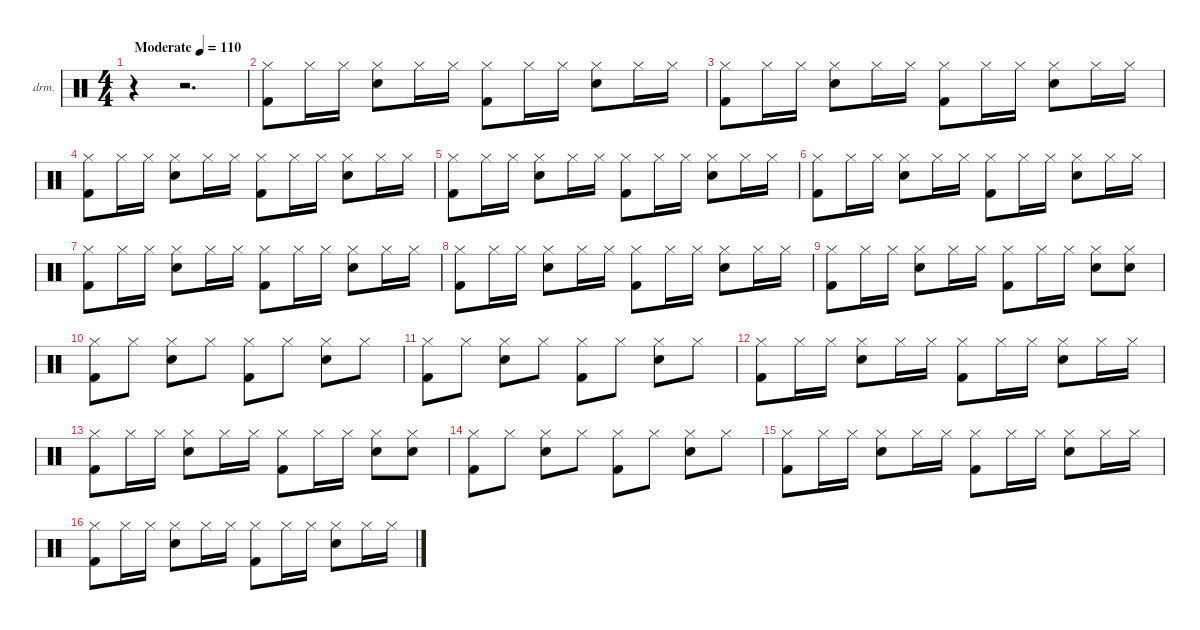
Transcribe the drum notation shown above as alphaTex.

\hideDynamics
\bracketExtendMode nobrackets
\firstSystemTrackNameOrientation horizontal
\otherSystemsTrackNameOrientation horizontal
\track ("韩子钰" "drm.") {instrument percussion}
\staff {score}
\articulation defaults
\ts (4 4)
\beaming (8 2 2 2 2)
\tempo (110 "Moderate")
\clef neutral
\ks c
r.4{dy f} r.2{d} |
("Hi-Hat (closed)" "Kick (hit) 2").8 "Hi-Hat (closed)".16 "Hi-Hat (closed)".16 ("Hi-Hat (closed)" "Snare (hit) 2").8 "Hi-Hat (closed)".16 "Hi-Hat (closed)".16 ("Hi-Hat (closed)" "Kick (hit) 2").8 "Hi-Hat (closed)".16 "Hi-Hat (closed)".16 ("Hi-Hat (closed)" "Snare (hit) 2").8 "Hi-Hat (closed)".16 "Hi-Hat (closed)".16 |
("Hi-Hat (closed)" "Kick (hit) 2").8 "Hi-Hat (closed)".16 "Hi-Hat (closed)".16 ("Hi-Hat (closed)" "Snare (hit) 2").8 "Hi-Hat (closed)".16 "Hi-Hat (closed)".16 ("Hi-Hat (closed)" "Kick (hit) 2").8 "Hi-Hat (closed)".16 "Hi-Hat (closed)".16 ("Hi-Hat (closed)" "Snare (hit) 2").8 "Hi-Hat (closed)".16 "Hi-Hat (closed)".16 |
("Hi-Hat (closed)" "Kick (hit) 2").8 "Hi-Hat (closed)".16 "Hi-Hat (closed)".16 ("Hi-Hat (closed)" "Snare (hit) 2").8 "Hi-Hat (closed)".16 "Hi-Hat (closed)".16 ("Hi-Hat (closed)" "Kick (hit) 2").8 "Hi-Hat (closed)".16 "Hi-Hat (closed)".16 ("Hi-Hat (closed)" "Snare (hit) 2").8 "Hi-Hat (closed)".16 "Hi-Hat (closed)".16 |
("Hi-Hat (closed)" "Kick (hit) 2").8 "Hi-Hat (closed)".16 "Hi-Hat (closed)".16 ("Hi-Hat (closed)" "Snare (hit) 2").8 "Hi-Hat (closed)".16 "Hi-Hat (closed)".16 ("Hi-Hat (closed)" "Kick (hit) 2").8 "Hi-Hat (closed)".16 "Hi-Hat (closed)".16 ("Hi-Hat (closed)" "Snare (hit) 2").8 "Hi-Hat (closed)".16 "Hi-Hat (closed)".16 |
("Hi-Hat (closed)" "Kick (hit) 2").8 "Hi-Hat (closed)".16 "Hi-Hat (closed)".16 ("Hi-Hat (closed)" "Snare (hit) 2").8 "Hi-Hat (closed)".16 "Hi-Hat (closed)".16 ("Hi-Hat (closed)" "Kick (hit) 2").8 "Hi-Hat (closed)".16 "Hi-Hat (closed)".16 ("Hi-Hat (closed)" "Snare (hit) 2").8 "Hi-Hat (closed)".16 "Hi-Hat (closed)".16 |
("Hi-Hat (closed)" "Kick (hit) 2").8 "Hi-Hat (closed)".16 "Hi-Hat (closed)".16 ("Hi-Hat (closed)" "Snare (hit) 2").8 "Hi-Hat (closed)".16 "Hi-Hat (closed)".16 ("Hi-Hat (closed)" "Kick (hit) 2").8 "Hi-Hat (closed)".16 "Hi-Hat (closed)".16 ("Hi-Hat (closed)" "Snare (hit) 2").8 "Hi-Hat (closed)".16 "Hi-Hat (closed)".16 |
("Hi-Hat (closed)" "Kick (hit) 2").8 "Hi-Hat (closed)".16 "Hi-Hat (closed)".16 ("Hi-Hat (closed)" "Snare (hit) 2").8 "Hi-Hat (closed)".16 "Hi-Hat (closed)".16 ("Hi-Hat (closed)" "Kick (hit) 2").8 "Hi-Hat (closed)".16 "Hi-Hat (closed)".16 ("Hi-Hat (closed)" "Snare (hit) 2").8 "Hi-Hat (closed)".16 "Hi-Hat (closed)".16 |
("Hi-Hat (closed)" "Kick (hit) 2").8 "Hi-Hat (closed)".16 "Hi-Hat (closed)".16 ("Hi-Hat (closed)" "Snare (hit) 2").8 "Hi-Hat (closed)".16 "Hi-Hat (closed)".16 ("Hi-Hat (closed)" "Kick (hit) 2").8 "Hi-Hat (closed)".16 "Hi-Hat (closed)".16 ("Hi-Hat (closed)" "Snare (hit) 2").8 ("Hi-Hat (closed)" "Snare (hit) 2").8 |
("Hi-Hat (closed)" "Kick (hit) 2").8 "Hi-Hat (closed)".8 ("Hi-Hat (closed)" "Snare (hit) 2").8 "Hi-Hat (closed)".8 ("Hi-Hat (closed)" "Kick (hit) 2").8 "Hi-Hat (closed)".8 ("Hi-Hat (closed)" "Snare (hit) 2").8 "Hi-Hat (closed)".8 |
("Hi-Hat (closed)" "Kick (hit) 2").8 "Hi-Hat (closed)".8 ("Hi-Hat (closed)" "Snare (hit) 2").8 "Hi-Hat (closed)".8 ("Hi-Hat (closed)" "Kick (hit) 2").8 "Hi-Hat (closed)".8 ("Hi-Hat (closed)" "Snare (hit) 2").8 "Hi-Hat (closed)".8 |
("Hi-Hat (closed)" "Kick (hit) 2").8 "Hi-Hat (closed)".16 "Hi-Hat (closed)".16 ("Hi-Hat (closed)" "Snare (hit) 2").8 "Hi-Hat (closed)".16 "Hi-Hat (closed)".16 ("Hi-Hat (closed)" "Kick (hit) 2").8 "Hi-Hat (closed)".16 "Hi-Hat (closed)".16 ("Hi-Hat (closed)" "Snare (hit) 2").8 "Hi-Hat (closed)".16 "Hi-Hat (closed)".16 |
("Hi-Hat (closed)" "Kick (hit) 2").8 "Hi-Hat (closed)".16 "Hi-Hat (closed)".16 ("Hi-Hat (closed)" "Snare (hit) 2").8 "Hi-Hat (closed)".16 "Hi-Hat (closed)".16 ("Hi-Hat (closed)" "Kick (hit) 2").8 "Hi-Hat (closed)".16 "Hi-Hat (closed)".16 ("Hi-Hat (closed)" "Snare (hit) 2").8 ("Hi-Hat (closed)" "Snare (hit) 2").8 |
("Hi-Hat (closed)" "Kick (hit) 2").8 "Hi-Hat (closed)".8 ("Hi-Hat (closed)" "Snare (hit) 2").8 "Hi-Hat (closed)".8 ("Hi-Hat (closed)" "Kick (hit) 2").8 "Hi-Hat (closed)".8 ("Hi-Hat (closed)" "Snare (hit) 2").8 "Hi-Hat (closed)".8 |
("Hi-Hat (closed)" "Kick (hit) 2").8 "Hi-Hat (closed)".16 "Hi-Hat (closed)".16 ("Hi-Hat (closed)" "Snare (hit) 2").8 "Hi-Hat (closed)".16 "Hi-Hat (closed)".16 ("Hi-Hat (closed)" "Kick (hit) 2").8 "Hi-Hat (closed)".16 "Hi-Hat (closed)".16 ("Hi-Hat (closed)" "Snare (hit) 2").8 "Hi-Hat (closed)".16 "Hi-Hat (closed)".16 |
("Hi-Hat (closed)" "Kick (hit) 2").8 "Hi-Hat (closed)".16 "Hi-Hat (closed)".16 ("Hi-Hat (closed)" "Snare (hit) 2").8 "Hi-Hat (closed)".16 "Hi-Hat (closed)".16 ("Hi-Hat (closed)" "Kick (hit) 2").8 "Hi-Hat (closed)".16 "Hi-Hat (closed)".16 ("Hi-Hat (closed)" "Snare (hit) 2").8 "Hi-Hat (closed)".16 "Hi-Hat (closed)".16
